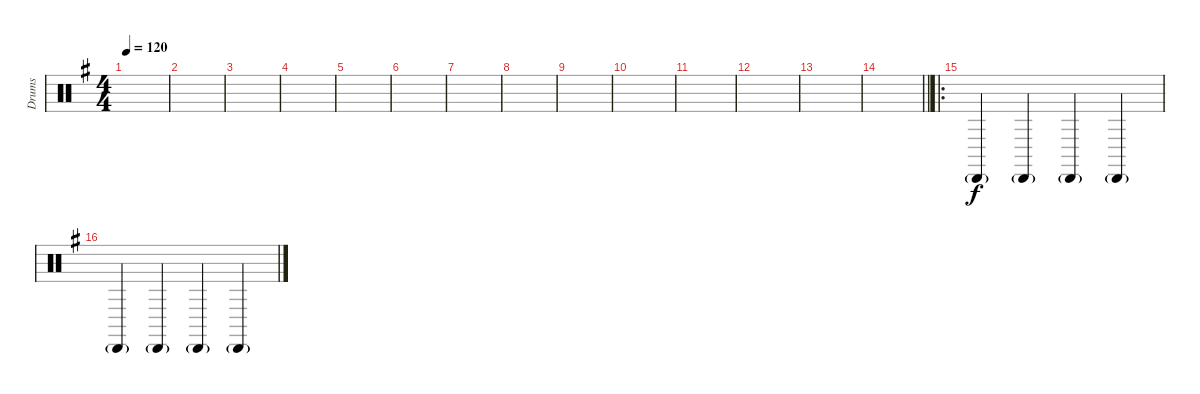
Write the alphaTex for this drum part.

\track ("Drums" "Drums") {instrument percussion}
\staff {score}
\articulation defaults
\ts (4 4)
\tempo 120
\clef neutral
\ks g
|
|
|
|
|
|
|
|
|
|
|
|
|
\barLineRight lightlight
|
\ro "Cabasa (hit)"{g}.4 "Cabasa (hit)"{g}.4 "Cabasa (hit)"{g}.4 "Cabasa (hit)"{g}.4
|
"Cabasa (hit)"{g}.4 "Cabasa (hit)"{g}.4 "Cabasa (hit)"{g}.4 "Cabasa (hit)"{g}.4
